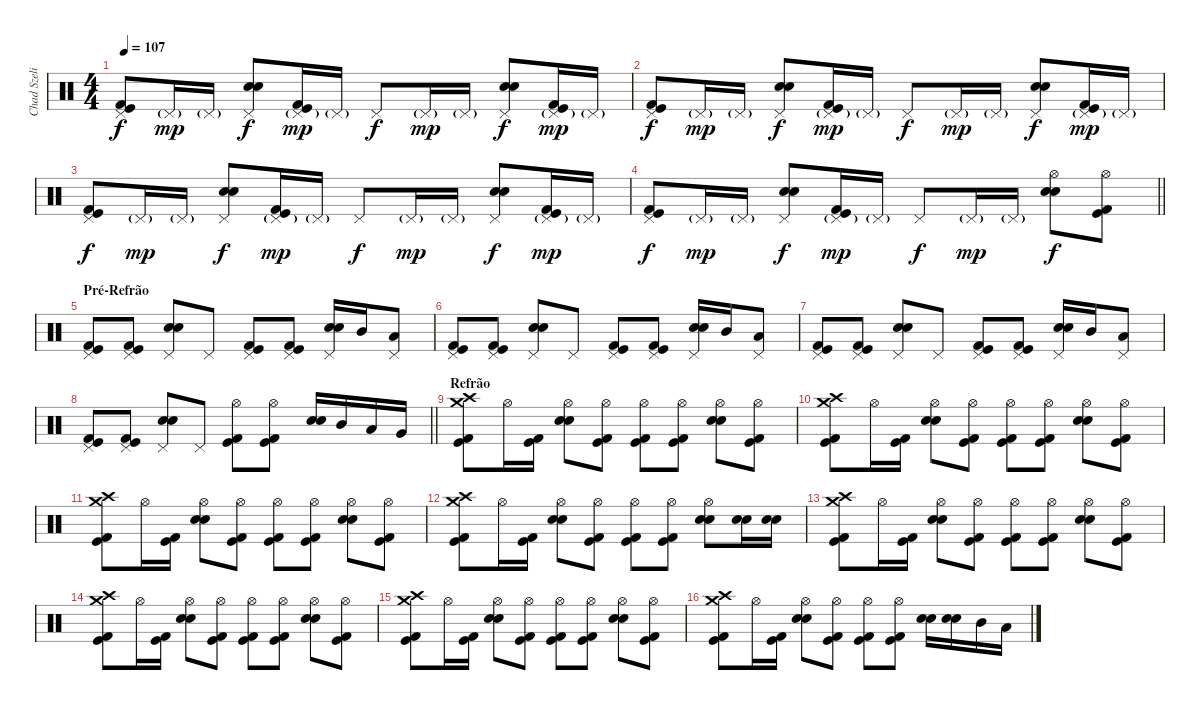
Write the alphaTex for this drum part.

\track ("Chad Szeliga" "Chad Szeli") {instrument percussion}
\staff {score}
\articulation defaults
\ts (4 4)
\tempo 107
\clef neutral
\ks c
("Kick (hit) 2" "Kick (hit)" "Pedal Hi-Hat (hit)").8{dy f} "Pedal Hi-Hat (hit)"{g}.16{dy mp} "Pedal Hi-Hat (hit)"{g}.16 ("Snare (hit) 2" "Snare (hit) 2" "Pedal Hi-Hat (hit)").8{dy f} ("Kick (hit) 2" "Kick (hit)" "Pedal Hi-Hat (hit)"{g}).16{dy mp} "Pedal Hi-Hat (hit)"{g}.16 "Pedal Hi-Hat (hit)".8{dy f} "Pedal Hi-Hat (hit)"{g}.16{dy mp} "Pedal Hi-Hat (hit)"{g}.16 ("Snare (hit) 2" "Snare (hit) 2" "Pedal Hi-Hat (hit)").8{dy f} ("Kick (hit) 2" "Kick (hit)" "Pedal Hi-Hat (hit)"{g}).16{dy mp} "Pedal Hi-Hat (hit)"{g}.16 |
("Kick (hit) 2" "Kick (hit)" "Pedal Hi-Hat (hit)").8{dy f} "Pedal Hi-Hat (hit)"{g}.16{dy mp} "Pedal Hi-Hat (hit)"{g}.16 ("Snare (hit) 2" "Snare (hit) 2" "Pedal Hi-Hat (hit)").8{dy f} ("Kick (hit) 2" "Kick (hit)" "Pedal Hi-Hat (hit)"{g}).16{dy mp} "Pedal Hi-Hat (hit)"{g}.16 "Pedal Hi-Hat (hit)".8{dy f} "Pedal Hi-Hat (hit)"{g}.16{dy mp} "Pedal Hi-Hat (hit)"{g}.16 ("Snare (hit) 2" "Snare (hit) 2" "Pedal Hi-Hat (hit)").8{dy f} ("Kick (hit) 2" "Kick (hit)" "Pedal Hi-Hat (hit)"{g}).16{dy mp} "Pedal Hi-Hat (hit)"{g}.16 |
("Kick (hit) 2" "Kick (hit)" "Pedal Hi-Hat (hit)").8{dy f} "Pedal Hi-Hat (hit)"{g}.16{dy mp} "Pedal Hi-Hat (hit)"{g}.16 ("Snare (hit) 2" "Snare (hit) 2" "Pedal Hi-Hat (hit)").8{dy f} ("Kick (hit) 2" "Kick (hit)" "Pedal Hi-Hat (hit)"{g}).16{dy mp} "Pedal Hi-Hat (hit)"{g}.16 "Pedal Hi-Hat (hit)".8{dy f} "Pedal Hi-Hat (hit)"{g}.16{dy mp} "Pedal Hi-Hat (hit)"{g}.16 ("Snare (hit) 2" "Snare (hit) 2" "Pedal Hi-Hat (hit)").8{dy f} ("Kick (hit) 2" "Kick (hit)" "Pedal Hi-Hat (hit)"{g}).16{dy mp} "Pedal Hi-Hat (hit)"{g}.16 |
\barLineRight lightlight
("Kick (hit) 2" "Kick (hit)" "Pedal Hi-Hat (hit)").8{dy f} "Pedal Hi-Hat (hit)"{g}.16{dy mp} "Pedal Hi-Hat (hit)"{g}.16 ("Snare (hit) 2" "Snare (hit) 2" "Pedal Hi-Hat (hit)").8{dy f} ("Kick (hit) 2" "Kick (hit)" "Pedal Hi-Hat (hit)"{g}).16{dy mp} "Pedal Hi-Hat (hit)"{g}.16 "Pedal Hi-Hat (hit)".8{dy f} "Pedal Hi-Hat (hit)"{g}.16{dy mp} "Pedal Hi-Hat (hit)"{g}.16 ("Snare (hit) 2" "Snare (hit) 2" "Hi-Hat (open)").8{dy f} ("Kick (hit) 2" "Kick (hit)" "Hi-Hat (open)").8 |
\section ("" "Pré-Refrão")
("Kick (hit) 2" "Kick (hit)" "Pedal Hi-Hat (hit)").8 ("Kick (hit) 2" "Kick (hit)" "Pedal Hi-Hat (hit)").8 ("Snare (hit) 2" "Snare (hit) 2" "Pedal Hi-Hat (hit)").8 "Pedal Hi-Hat (hit)".8 ("Kick (hit) 2" "Kick (hit)" "Pedal Hi-Hat (hit)").8 ("Kick (hit) 2" "Kick (hit)" "Pedal Hi-Hat (hit)").8 ("Snare (hit) 2" "Snare (hit) 2" "Pedal Hi-Hat (hit)").16 "Mid Tom (hit)".16 ("Low Tom (hit)" "Pedal Hi-Hat (hit)").8 |
("Kick (hit) 2" "Kick (hit)" "Pedal Hi-Hat (hit)").8 ("Kick (hit) 2" "Kick (hit)" "Pedal Hi-Hat (hit)").8 ("Snare (hit) 2" "Snare (hit) 2" "Pedal Hi-Hat (hit)").8 "Pedal Hi-Hat (hit)".8 ("Kick (hit) 2" "Kick (hit)" "Pedal Hi-Hat (hit)").8 ("Kick (hit) 2" "Kick (hit)" "Pedal Hi-Hat (hit)").8 ("Snare (hit) 2" "Snare (hit) 2" "Pedal Hi-Hat (hit)").16 "Mid Tom (hit)".16 ("Low Tom (hit)" "Pedal Hi-Hat (hit)").8 |
("Kick (hit) 2" "Kick (hit)" "Pedal Hi-Hat (hit)").8 ("Kick (hit) 2" "Kick (hit)" "Pedal Hi-Hat (hit)").8 ("Snare (hit) 2" "Snare (hit) 2" "Pedal Hi-Hat (hit)").8 "Pedal Hi-Hat (hit)".8 ("Kick (hit) 2" "Kick (hit)" "Pedal Hi-Hat (hit)").8 ("Kick (hit) 2" "Kick (hit)" "Pedal Hi-Hat (hit)").8 ("Snare (hit) 2" "Snare (hit) 2" "Pedal Hi-Hat (hit)").16 "Mid Tom (hit)".16 ("Low Tom (hit)" "Pedal Hi-Hat (hit)").8 |
\barLineRight lightlight
("Kick (hit) 2" "Kick (hit)" "Pedal Hi-Hat (hit)").8 ("Kick (hit) 2" "Kick (hit)" "Pedal Hi-Hat (hit)").8 ("Snare (hit) 2" "Snare (hit) 2" "Pedal Hi-Hat (hit)").8 "Pedal Hi-Hat (hit)".8 ("Kick (hit) 2" "Kick (hit)" "Hi-Hat (open)").8 ("Kick (hit) 2" "Kick (hit)" "Hi-Hat (open)").8 ("Snare (hit) 2" "Snare (hit) 2").16 "Mid Tom (hit)".16 "Low Tom (hit)".16 "Very Low Tom (hit)".16 |
\section ("" "Refrão")
("Crash high (hit)" "Kick (hit) 2" "Kick (hit)" "Crash medium (hit)").8 "Hi-Hat (open)".16 ("Kick (hit) 2" "Kick (hit)").16 ("Snare (hit) 2" "Snare (hit) 2" "Hi-Hat (open)").8 ("Kick (hit) 2" "Kick (hit)" "Hi-Hat (open)").8 ("Kick (hit) 2" "Kick (hit)" "Hi-Hat (open)").8 ("Kick (hit) 2" "Kick (hit)" "Hi-Hat (open)").8 ("Snare (hit) 2" "Snare (hit) 2" "Hi-Hat (open)").8 ("Kick (hit) 2" "Kick (hit)" "Hi-Hat (open)").8 |
("Crash high (hit)" "Kick (hit) 2" "Kick (hit)" "Crash medium (hit)").8 "Hi-Hat (open)".16 ("Kick (hit) 2" "Kick (hit)").16 ("Snare (hit) 2" "Snare (hit) 2" "Hi-Hat (open)").8 ("Kick (hit) 2" "Kick (hit)" "Hi-Hat (open)").8 ("Kick (hit) 2" "Kick (hit)" "Hi-Hat (open)").8 ("Kick (hit) 2" "Kick (hit)" "Hi-Hat (open)").8 ("Snare (hit) 2" "Snare (hit) 2" "Hi-Hat (open)").8 ("Kick (hit) 2" "Kick (hit)" "Hi-Hat (open)").8 |
("Crash high (hit)" "Kick (hit) 2" "Kick (hit)" "Crash medium (hit)").8 "Hi-Hat (open)".16 ("Kick (hit) 2" "Kick (hit)").16 ("Snare (hit) 2" "Snare (hit) 2" "Hi-Hat (open)").8 ("Kick (hit) 2" "Kick (hit)" "Hi-Hat (open)").8 ("Kick (hit) 2" "Kick (hit)" "Hi-Hat (open)").8 ("Kick (hit) 2" "Kick (hit)" "Hi-Hat (open)").8 ("Snare (hit) 2" "Snare (hit) 2" "Hi-Hat (open)").8 ("Kick (hit) 2" "Kick (hit)" "Hi-Hat (open)").8 |
("Crash high (hit)" "Kick (hit) 2" "Kick (hit)" "Crash medium (hit)").8 "Hi-Hat (open)".16 ("Kick (hit) 2" "Kick (hit)").16 ("Snare (hit) 2" "Snare (hit) 2" "Hi-Hat (open)").8 ("Kick (hit) 2" "Kick (hit)" "Hi-Hat (open)").8 ("Kick (hit) 2" "Kick (hit)" "Hi-Hat (open)").8 ("Kick (hit) 2" "Kick (hit)" "Hi-Hat (open)").8 ("Snare (hit) 2" "Snare (hit) 2" "Hi-Hat (open)").8 ("Snare (hit) 2" "Snare (hit) 2").16 ("Snare (hit) 2" "Snare (hit) 2").16 |
("Crash high (hit)" "Kick (hit) 2" "Kick (hit)" "Crash medium (hit)").8 "Hi-Hat (open)".16 ("Kick (hit) 2" "Kick (hit)").16 ("Snare (hit) 2" "Snare (hit) 2" "Hi-Hat (open)").8 ("Kick (hit) 2" "Kick (hit)" "Hi-Hat (open)").8 ("Kick (hit) 2" "Kick (hit)" "Hi-Hat (open)").8 ("Kick (hit) 2" "Kick (hit)" "Hi-Hat (open)").8 ("Snare (hit) 2" "Snare (hit) 2" "Hi-Hat (open)").8 ("Kick (hit) 2" "Kick (hit)" "Hi-Hat (open)").8 |
("Crash high (hit)" "Kick (hit) 2" "Kick (hit)" "Crash medium (hit)").8 "Hi-Hat (open)".16 ("Kick (hit) 2" "Kick (hit)").16 ("Snare (hit) 2" "Snare (hit) 2" "Hi-Hat (open)").8 ("Kick (hit) 2" "Kick (hit)" "Hi-Hat (open)").8 ("Kick (hit) 2" "Kick (hit)" "Hi-Hat (open)").8 ("Kick (hit) 2" "Kick (hit)" "Hi-Hat (open)").8 ("Snare (hit) 2" "Snare (hit) 2" "Hi-Hat (open)").8 ("Kick (hit) 2" "Kick (hit)" "Hi-Hat (open)").8 |
("Crash high (hit)" "Kick (hit) 2" "Kick (hit)" "Crash medium (hit)").8 "Hi-Hat (open)".16 ("Kick (hit) 2" "Kick (hit)").16 ("Snare (hit) 2" "Snare (hit) 2" "Hi-Hat (open)").8 ("Kick (hit) 2" "Kick (hit)" "Hi-Hat (open)").8 ("Kick (hit) 2" "Kick (hit)" "Hi-Hat (open)").8 ("Kick (hit) 2" "Kick (hit)" "Hi-Hat (open)").8 ("Snare (hit) 2" "Snare (hit) 2" "Hi-Hat (open)").8 ("Kick (hit) 2" "Kick (hit)" "Hi-Hat (open)").8 |
("Crash high (hit)" "Kick (hit) 2" "Kick (hit)" "Crash medium (hit)").8 "Hi-Hat (open)".16 ("Kick (hit) 2" "Kick (hit)").16 ("Snare (hit) 2" "Snare (hit) 2" "Hi-Hat (open)").8 ("Kick (hit) 2" "Kick (hit)" "Hi-Hat (open)").8 ("Kick (hit) 2" "Kick (hit)" "Hi-Hat (open)").8 ("Kick (hit) 2" "Kick (hit)" "Hi-Hat (open)").8 ("Snare (hit) 2" "Snare (hit) 2").16 ("Snare (hit) 2" "Snare (hit) 2").16 "Mid Tom (hit)".16 "Low Tom (hit)".16
